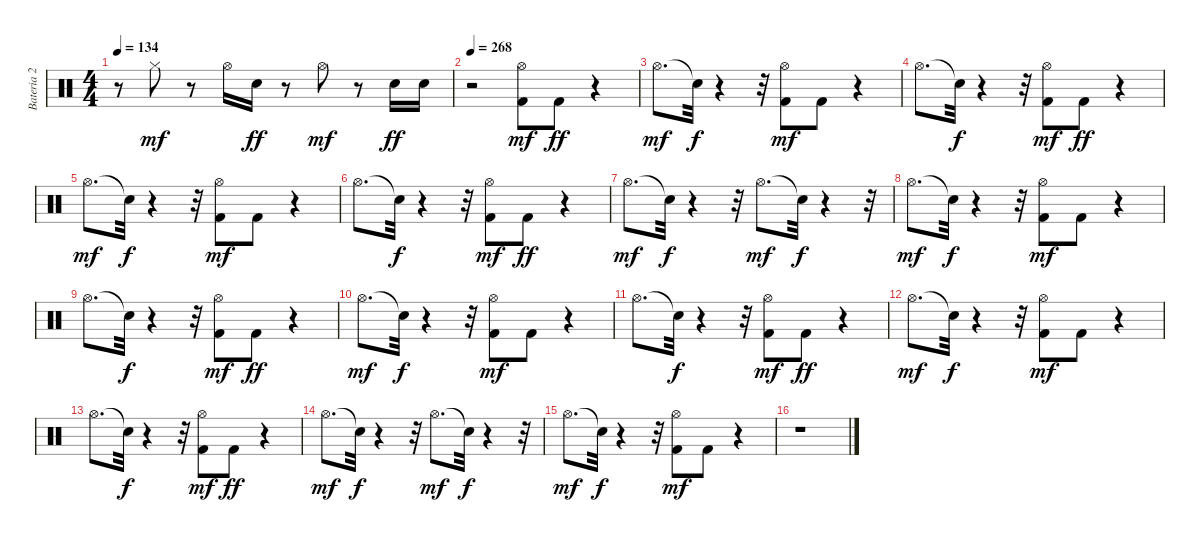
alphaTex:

\track ("Bateria 2" "Bateria 2") {instrument percussion}
\staff {score}
\articulation defaults
\ts (4 4)
\tempo 134
\clef neutral
\ks c
r.8{dy mf} "Hi-Hat (closed)".8 r.8 "Hi-Hat (open)".16 "Electric Snare (hit)".16{dy ff} r.8 "Hi-Hat (open)".8{dy mf} r.8 "Electric Snare (hit)".16{dy ff} "Electric Snare (hit)".16 |
\tempo 268
r.2 ("Kick (hit) 2" "Hi-Hat (open)").8{dy mf} "Kick (hit) 2".8{dy ff} r.4 |
"Hi-Hat (open)".8{d dy mf} "Snare (hit)"{t}.32{dy f} r.4 r.32 ("Kick (hit) 2" "Hi-Hat (open)").8{dy mf} "Kick (hit) 2".8 r.4 |
"Hi-Hat (open)".8{d} "Snare (hit)"{t}.32{dy f} r.4 r.32 ("Kick (hit) 2" "Hi-Hat (open)").8{dy mf} "Kick (hit) 2".8{dy ff} r.4 |
"Hi-Hat (open)".8{d dy mf} "Snare (hit)"{t}.32{dy f} r.4 r.32 ("Kick (hit) 2" "Hi-Hat (open)").8{dy mf} "Kick (hit) 2".8 r.4 |
"Hi-Hat (open)".8{d} "Snare (hit)"{t}.32{dy f} r.4 r.32 ("Kick (hit) 2" "Hi-Hat (open)").8{dy mf} "Kick (hit) 2".8{dy ff} r.4 |
"Hi-Hat (open)".8{d dy mf} "Snare (hit)"{t}.32{dy f} r.4 r.32 "Hi-Hat (open)".8{d dy mf} "Snare (hit)"{t}.32{dy f} r.4 r.32 |
"Hi-Hat (open)".8{d dy mf} "Snare (hit)"{t}.32{dy f} r.4 r.32 ("Kick (hit) 2" "Hi-Hat (open)").8{dy mf} "Kick (hit) 2".8 r.4 |
"Hi-Hat (open)".8{d} "Snare (hit)"{t}.32{dy f} r.4 r.32 ("Kick (hit) 2" "Hi-Hat (open)").8{dy mf} "Kick (hit) 2".8{dy ff} r.4 |
"Hi-Hat (open)".8{d dy mf} "Snare (hit)"{t}.32{dy f} r.4 r.32 ("Kick (hit) 2" "Hi-Hat (open)").8{dy mf} "Kick (hit) 2".8 r.4 |
"Hi-Hat (open)".8{d} "Snare (hit)"{t}.32{dy f} r.4 r.32 ("Kick (hit) 2" "Hi-Hat (open)").8{dy mf} "Kick (hit) 2".8{dy ff} r.4 |
"Hi-Hat (open)".8{d dy mf} "Snare (hit)"{t}.32{dy f} r.4 r.32 ("Kick (hit) 2" "Hi-Hat (open)").8{dy mf} "Kick (hit) 2".8 r.4 |
"Hi-Hat (open)".8{d} "Snare (hit)"{t}.32{dy f} r.4 r.32 ("Kick (hit) 2" "Hi-Hat (open)").8{dy mf} "Kick (hit) 2".8{dy ff} r.4 |
"Hi-Hat (open)".8{d dy mf} "Snare (hit)"{t}.32{dy f} r.4 r.32 "Hi-Hat (open)".8{d dy mf} "Snare (hit)"{t}.32{dy f} r.4 r.32 |
"Hi-Hat (open)".8{d dy mf} "Snare (hit)"{t}.32{dy f} r.4 r.32 ("Kick (hit) 2" "Hi-Hat (open)").8{dy mf} "Kick (hit) 2".8 r.4 |
r.1
